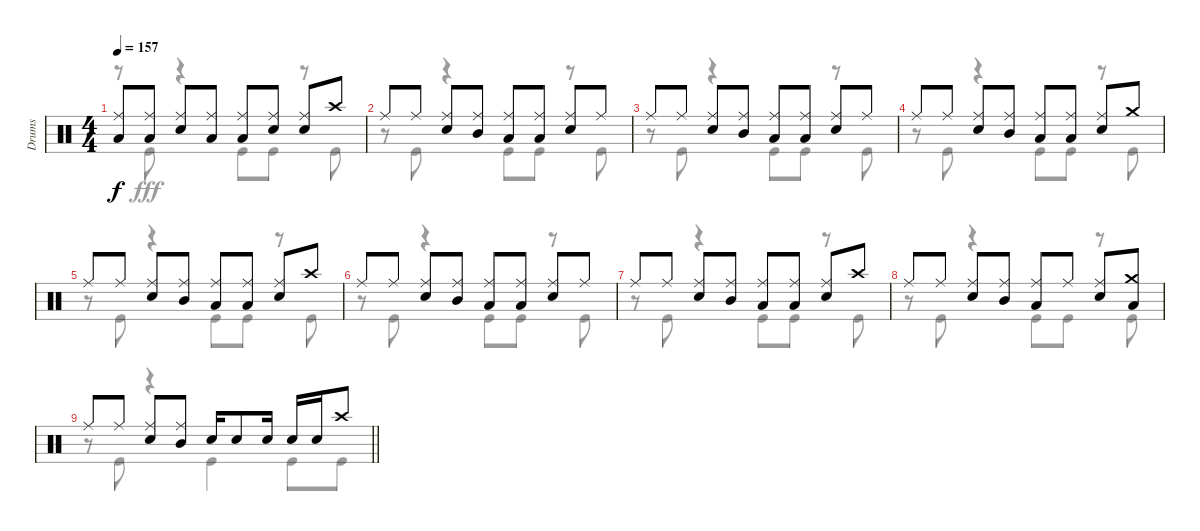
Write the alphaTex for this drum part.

\track ("Drums" "Drums") {instrument percussion}
\staff {score}
\articulation defaults
\voice
\ts (4 4)
\tempo 157
\clef neutral
\ks c
("Ride (middle)" "Low Tom (hit)").8{dy f} ("Ride (middle)" "Low Tom (hit)").8 ("Ride (middle)" "Snare (hit) 2").8 ("Ride (middle)" "Low Tom (hit)").8 ("Ride (middle)" "Low Tom (hit)").8 ("Ride (middle)" "Snare (hit) 2").8 ("Ride (middle)" "Snare (hit) 2").8 "Crash high (hit)".8 |
"Ride (middle)".8 "Ride (middle)".8 ("Ride (middle)" "Snare (hit) 2").8 ("Ride (middle)" "Mid Tom (hit)").8 ("Ride (middle)" "Low Tom (hit)").8 ("Ride (middle)" "Low Tom (hit)").8 ("Ride (middle)" "Snare (hit) 2").8 "Ride (middle)".8 |
"Ride (middle)".8 "Ride (middle)".8 ("Ride (middle)" "Snare (hit) 2").8 ("Ride (middle)" "Mid Tom (hit)").8 ("Ride (middle)" "Low Tom (hit)").8 ("Ride (middle)" "Low Tom (hit)").8 ("Ride (middle)" "Snare (hit) 2").8 "Ride (middle)".8 |
"Ride (middle)".8 "Ride (middle)".8 ("Ride (middle)" "Snare (hit) 2").8 ("Ride (middle)" "Mid Tom (hit)").8 ("Ride (middle)" "Low Tom (hit)").8 ("Ride (middle)" "Low Tom (hit)").8 ("Ride (middle)" "Snare (hit) 2").8 "Crash medium (hit)".8 |
"Ride (middle)".8 "Ride (middle)".8 ("Ride (middle)" "Snare (hit) 2").8 ("Ride (middle)" "Mid Tom (hit)").8 ("Ride (middle)" "Low Tom (hit)").8 ("Ride (middle)" "Low Tom (hit)").8 ("Ride (middle)" "Snare (hit) 2").8 "Crash high (hit)".8 |
"Ride (middle)".8 "Ride (middle)".8 ("Ride (middle)" "Snare (hit) 2").8 ("Ride (middle)" "Mid Tom (hit)").8 ("Ride (middle)" "Low Tom (hit)").8 ("Ride (middle)" "Low Tom (hit)").8 ("Ride (middle)" "Snare (hit) 2").8 "Ride (middle)".8 |
"Ride (middle)".8 "Ride (middle)".8 ("Ride (middle)" "Snare (hit) 2").8 ("Ride (middle)" "Mid Tom (hit)").8 ("Ride (middle)" "Low Tom (hit)").8 ("Ride (middle)" "Low Tom (hit)").8 ("Ride (middle)" "Snare (hit) 2").8 "Crash high (hit)".8 |
"Ride (middle)".8 "Ride (middle)".8 ("Ride (middle)" "Snare (hit) 2").8 ("Ride (middle)" "Mid Tom (hit)").8 ("Ride (middle)" "Low Tom (hit)").8 "Ride (middle)".8 ("Ride (middle)" "Snare (hit) 2").8 ("Crash medium (hit)" "Low Tom (hit)").8 |
\barLineRight lightlight "Ride (middle)".8 "Ride (middle)".8
("Ride (middle)" "Snare (hit) 2").8 ("Ride (middle)" "Mid Tom (hit)").8 "Snare (hit) 2".16 "Snare (hit) 2".8 "Snare (hit) 2".16 "Snare (hit) 2".16 "Snare (hit) 2".16 "Crash high (hit)".8
\voice
\clef neutral
\ottava regular
\simile none
\ks c
r.8{dy fff} "Kick (hit)".8 r.4 "Kick (hit)".8 "Kick (hit)".8 r.8 "Kick (hit)".8 |
r.8 "Kick (hit)".8 r.4 "Kick (hit)".8 "Kick (hit)".8 r.8 "Kick (hit)".8 |
r.8 "Kick (hit)".8 r.4 "Kick (hit)".8 "Kick (hit)".8 r.8 "Kick (hit)".8 |
r.8 "Kick (hit)".8 r.4 "Kick (hit)".8 "Kick (hit)".8 r.8 "Kick (hit)".8 |
r.8 "Kick (hit)".8 r.4 "Kick (hit)".8 "Kick (hit)".8 r.8 "Kick (hit)".8 |
r.8 "Kick (hit)".8 r.4 "Kick (hit)".8 "Kick (hit)".8 r.8 "Kick (hit)".8 |
r.8 "Kick (hit)".8 r.4 "Kick (hit)".8 "Kick (hit)".8 r.8 "Kick (hit)".8 |
r.8 "Kick (hit)".8 r.4 "Kick (hit)".8 "Kick (hit)".8 r.8 "Kick (hit)".8 |
\barLineRight lightlight
r.8 "Kick (hit)".8 r.4 "Kick (hit)".4 "Kick (hit)".8 "Kick (hit)".8
